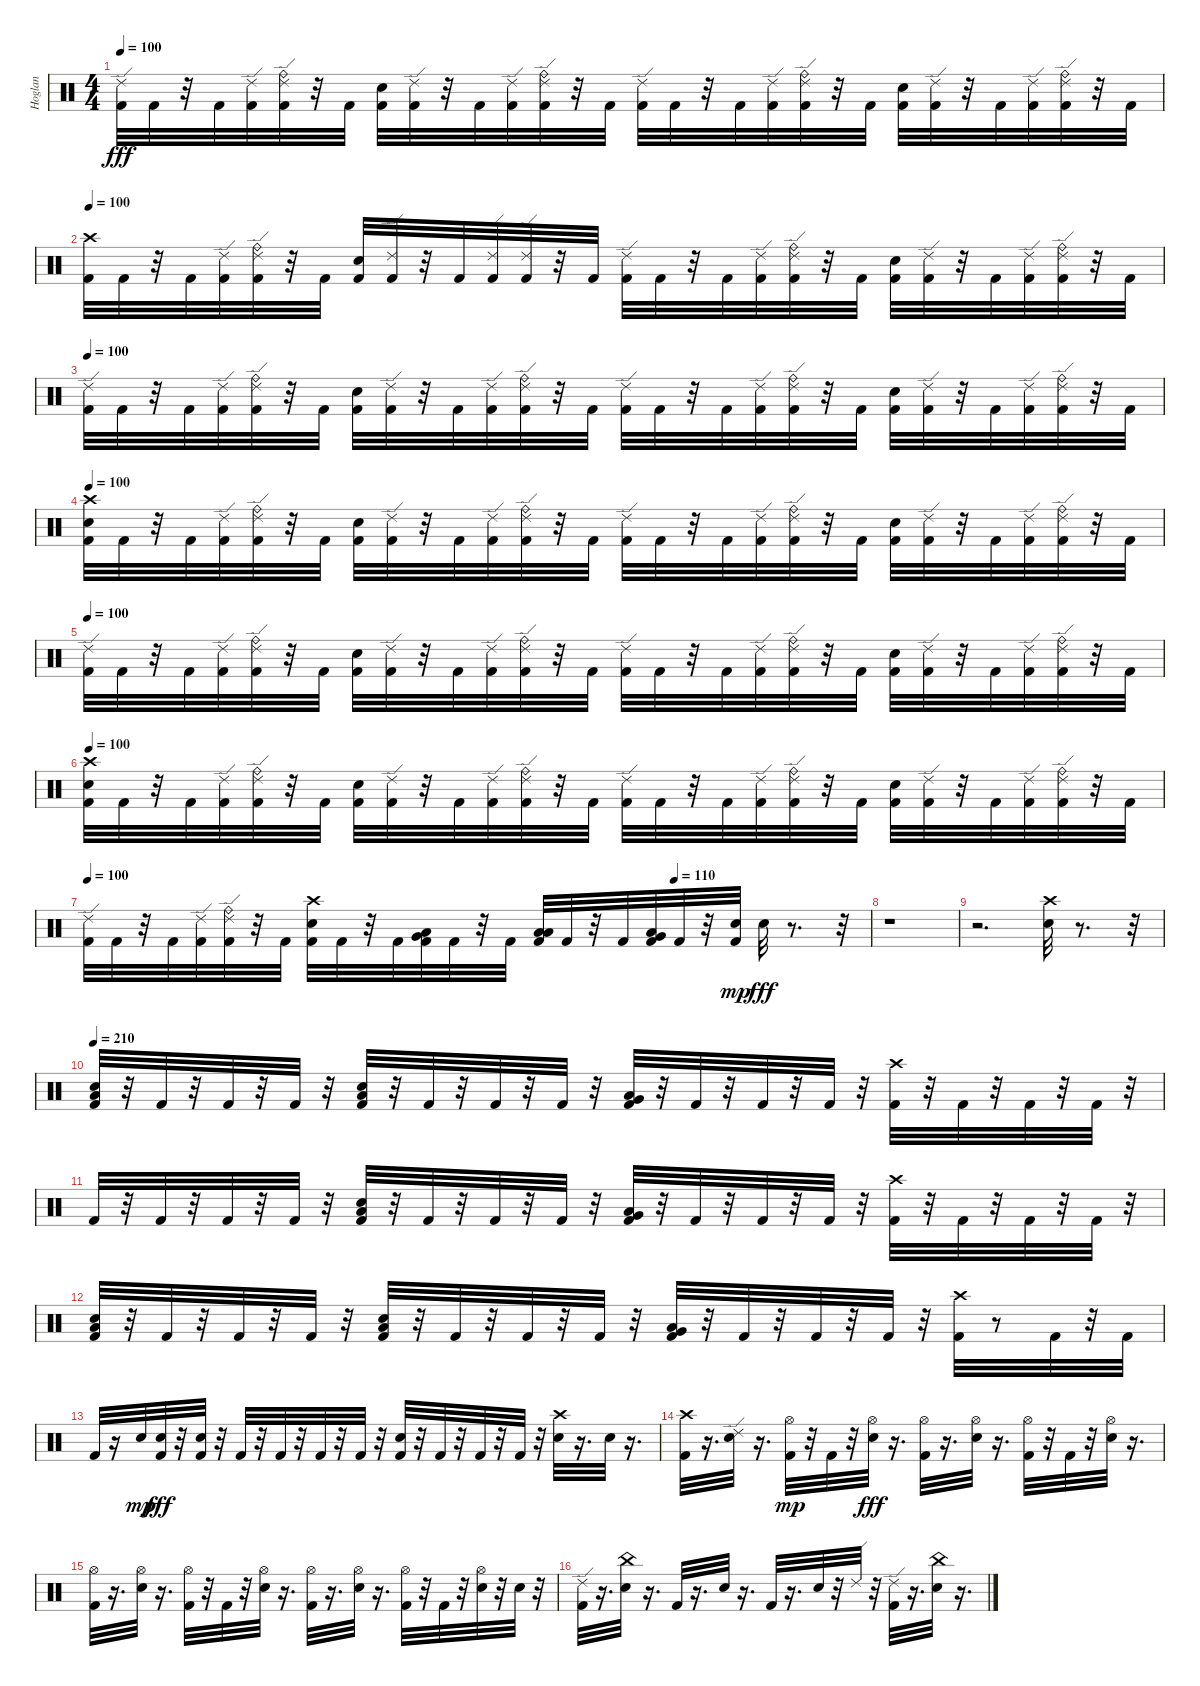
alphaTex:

\track ("Hoglan" "Hoglan") {instrument percussion}
\staff {score}
\articulation defaults
\ts (4 4)
\tempo 100
\clef neutral
\ks c
("Ride (edge) 2" "Kick (hit) 2").32{dy fff} "Kick (hit) 2".32 r.32 "Kick (hit) 2".32 ("Ride (edge) 2" "Kick (hit) 2").32 ("Ride (bell)" "Ride (edge) 2" "Kick (hit) 2").32 r.32 "Kick (hit) 2".32 ("Electric Snare (hit)" "Kick (hit) 2").32 ("Ride (edge) 2" "Kick (hit) 2").32 r.32 "Kick (hit) 2".32 ("Ride (edge) 2" "Kick (hit) 2").32 ("Ride (edge) 2" "Ride (bell)" "Kick (hit) 2").32 r.32 "Kick (hit) 2".32 ("Ride (edge) 2" "Kick (hit) 2").32 "Kick (hit) 2".32 r.32 "Kick (hit) 2".32 ("Ride (edge) 2" "Kick (hit) 2").32 ("Ride (bell)" "Ride (edge) 2" "Kick (hit) 2").32 r.32 "Kick (hit) 2".32 ("Electric Snare (hit)" "Kick (hit) 2").32 ("Ride (edge) 2" "Kick (hit) 2").32 r.32 "Kick (hit) 2".32 ("Ride (edge) 2" "Kick (hit) 2").32 ("Ride (edge) 2" "Ride (bell)" "Kick (hit) 2").32 r.32 "Kick (hit) 2".32 |
\tempo 100
("Crash high (hit)" "Kick (hit) 2").32 "Kick (hit) 2".32 r.32 "Kick (hit) 2".32 ("Ride (edge) 2" "Kick (hit) 2").32 ("Ride (bell)" "Ride (edge) 2" "Kick (hit) 2").32 r.32 "Kick (hit) 2".32 ("Electric Snare (hit)" "Kick (hit) 2").32 ("Ride (edge) 2" "Kick (hit) 2").32 r.32 "Kick (hit) 2".32 ("Ride (edge) 2" "Kick (hit) 2").32 ("Ride (edge) 2" "Kick (hit) 2").32 r.32 "Kick (hit) 2".32 ("Ride (edge) 2" "Kick (hit) 2").32 "Kick (hit) 2".32 r.32 "Kick (hit) 2".32 ("Ride (edge) 2" "Kick (hit) 2").32 ("Ride (bell)" "Ride (edge) 2" "Kick (hit) 2").32 r.32 "Kick (hit) 2".32 ("Electric Snare (hit)" "Kick (hit) 2").32 ("Ride (edge) 2" "Kick (hit) 2").32 r.32 "Kick (hit) 2".32 ("Ride (edge) 2" "Kick (hit) 2").32 ("Ride (edge) 2" "Ride (bell)" "Kick (hit) 2").32 r.32 "Kick (hit) 2".32 |
\tempo 100
("Ride (edge) 2" "Kick (hit) 2").32 "Kick (hit) 2".32 r.32 "Kick (hit) 2".32 ("Ride (edge) 2" "Kick (hit) 2").32 ("Ride (bell)" "Ride (edge) 2" "Kick (hit) 2").32 r.32 "Kick (hit) 2".32 ("Electric Snare (hit)" "Kick (hit) 2").32 ("Ride (edge) 2" "Kick (hit) 2").32 r.32 "Kick (hit) 2".32 ("Ride (edge) 2" "Kick (hit) 2").32 ("Ride (edge) 2" "Ride (bell)" "Kick (hit) 2").32 r.32 "Kick (hit) 2".32 ("Ride (edge) 2" "Kick (hit) 2").32 "Kick (hit) 2".32 r.32 "Kick (hit) 2".32 ("Ride (edge) 2" "Kick (hit) 2").32 ("Ride (bell)" "Ride (edge) 2" "Kick (hit) 2").32 r.32 "Kick (hit) 2".32 ("Electric Snare (hit)" "Kick (hit) 2").32 ("Ride (edge) 2" "Kick (hit) 2").32 r.32 "Kick (hit) 2".32 ("Ride (edge) 2" "Kick (hit) 2").32 ("Ride (edge) 2" "Ride (bell)" "Kick (hit) 2").32 r.32 "Kick (hit) 2".32 |
\tempo 100
("Crash high (hit)" "Electric Snare (hit)" "Kick (hit) 2").32 "Kick (hit) 2".32 r.32 "Kick (hit) 2".32 ("Ride (edge) 2" "Kick (hit) 2").32 ("Ride (bell)" "Ride (edge) 2" "Kick (hit) 2").32 r.32 "Kick (hit) 2".32 ("Electric Snare (hit)" "Kick (hit) 2").32 ("Ride (edge) 2" "Kick (hit) 2").32 r.32 "Kick (hit) 2".32 ("Ride (edge) 2" "Kick (hit) 2").32 ("Ride (edge) 2" "Ride (bell)" "Kick (hit) 2").32 r.32 "Kick (hit) 2".32 ("Ride (edge) 2" "Kick (hit) 2").32 "Kick (hit) 2".32 r.32 "Kick (hit) 2".32 ("Ride (edge) 2" "Kick (hit) 2").32 ("Ride (bell)" "Ride (edge) 2" "Kick (hit) 2").32 r.32 "Kick (hit) 2".32 ("Electric Snare (hit)" "Kick (hit) 2").32 ("Ride (edge) 2" "Kick (hit) 2").32 r.32 "Kick (hit) 2".32 ("Ride (edge) 2" "Kick (hit) 2").32 ("Ride (edge) 2" "Ride (bell)" "Kick (hit) 2").32 r.32 "Kick (hit) 2".32 |
\tempo 100
("Ride (edge) 2" "Kick (hit) 2").32 "Kick (hit) 2".32 r.32 "Kick (hit) 2".32 ("Ride (edge) 2" "Kick (hit) 2").32 ("Ride (bell)" "Ride (edge) 2" "Kick (hit) 2").32 r.32 "Kick (hit) 2".32 ("Electric Snare (hit)" "Kick (hit) 2").32 ("Ride (edge) 2" "Kick (hit) 2").32 r.32 "Kick (hit) 2".32 ("Ride (edge) 2" "Kick (hit) 2").32 ("Ride (edge) 2" "Ride (bell)" "Kick (hit) 2").32 r.32 "Kick (hit) 2".32 ("Ride (edge) 2" "Kick (hit) 2").32 "Kick (hit) 2".32 r.32 "Kick (hit) 2".32 ("Ride (edge) 2" "Kick (hit) 2").32 ("Ride (bell)" "Ride (edge) 2" "Kick (hit) 2").32 r.32 "Kick (hit) 2".32 ("Electric Snare (hit)" "Kick (hit) 2").32 ("Ride (edge) 2" "Kick (hit) 2").32 r.32 "Kick (hit) 2".32 ("Ride (edge) 2" "Kick (hit) 2").32 ("Ride (edge) 2" "Ride (bell)" "Kick (hit) 2").32 r.32 "Kick (hit) 2".32 |
\tempo 100
("Crash high (hit)" "Electric Snare (hit)" "Kick (hit) 2").32 "Kick (hit) 2".32 r.32 "Kick (hit) 2".32 ("Ride (edge) 2" "Kick (hit) 2").32 ("Ride (bell)" "Ride (edge) 2" "Kick (hit) 2").32 r.32 "Kick (hit) 2".32 ("Electric Snare (hit)" "Kick (hit) 2").32 ("Ride (edge) 2" "Kick (hit) 2").32 r.32 "Kick (hit) 2".32 ("Ride (edge) 2" "Kick (hit) 2").32 ("Ride (edge) 2" "Ride (bell)" "Kick (hit) 2").32 r.32 "Kick (hit) 2".32 ("Ride (edge) 2" "Kick (hit) 2").32 "Kick (hit) 2".32 r.32 "Kick (hit) 2".32 ("Ride (edge) 2" "Kick (hit) 2").32 ("Ride (bell)" "Ride (edge) 2" "Kick (hit) 2").32 r.32 "Kick (hit) 2".32 ("Electric Snare (hit)" "Kick (hit) 2").32 ("Ride (edge) 2" "Kick (hit) 2").32 r.32 "Kick (hit) 2".32 ("Ride (edge) 2" "Kick (hit) 2").32 ("Ride (edge) 2" "Ride (bell)" "Kick (hit) 2").32 r.32 "Kick (hit) 2".32 |
\tempo 100
\tempo (110 0.75)
("Ride (edge) 2" "Kick (hit) 2").32 "Kick (hit) 2".32 r.32 "Kick (hit) 2".32 ("Ride (edge) 2" "Kick (hit) 2").32 ("Ride (bell)" "Ride (edge) 2" "Kick (hit) 2").32 r.32 "Kick (hit) 2".32 ("Crash high (hit)" "Electric Snare (hit)" "Kick (hit) 2").32 "Kick (hit) 2".32 r.32 "Kick (hit) 2".32 ("Low Tom (hit)" "Very Low Tom (hit)" "Kick (hit) 2").32 "Kick (hit) 2".32 r.32 "Kick (hit) 2".32 ("Low Tom (hit)" "Low Floor Tom (hit)" "Kick (hit) 2").32 "Kick (hit) 2".32 r.32 "Kick (hit) 2".32 ("Very Low Tom (hit)" "Low Floor Tom (hit)" "Kick (hit) 2").32 "Kick (hit) 2".32 r.32 ("Kick (hit) 2" "Electric Snare (hit)").32{dy mp} "Electric Snare (hit)".32{dy fff} r.8{d} r.32 |
r.1 |
r.2{d} ("Crash high (hit)" "Electric Snare (hit)").32 r.8{d} r.32 |
\tempo 210
("Electric Snare (hit)" "Low Floor Tom (hit)" "Kick (hit) 2").32 r.32 "Kick (hit) 2".32 r.32 "Kick (hit) 2".32 r.32 "Kick (hit) 2".32 r.32 ("Electric Snare (hit)" "Low Floor Tom (hit)" "Kick (hit) 2").32 r.32 "Kick (hit) 2".32 r.32 "Kick (hit) 2".32 r.32 "Kick (hit) 2".32 r.32 ("Very Low Tom (hit)" "Low Floor Tom (hit)" "Kick (hit) 2").32 r.32 "Kick (hit) 2".32 r.32 "Kick (hit) 2".32 r.32 "Kick (hit) 2".32 r.32 ("Crash high (hit)" "Kick (hit) 2").32 r.32 "Kick (hit) 2".32 r.32 "Kick (hit) 2".32 r.32 "Kick (hit) 2".32 r.32 |
"Kick (hit) 2".32 r.32 "Kick (hit) 2".32 r.32 "Kick (hit) 2".32 r.32 "Kick (hit) 2".32 r.32 ("Electric Snare (hit)" "Low Floor Tom (hit)" "Kick (hit) 2").32 r.32 "Kick (hit) 2".32 r.32 "Kick (hit) 2".32 r.32 "Kick (hit) 2".32 r.32 ("Very Low Tom (hit)" "Low Floor Tom (hit)" "Kick (hit) 2").32 r.32 "Kick (hit) 2".32 r.32 "Kick (hit) 2".32 r.32 "Kick (hit) 2".32 r.32 ("Crash high (hit)" "Kick (hit) 2").32 r.32 "Kick (hit) 2".32 r.32 "Kick (hit) 2".32 r.32 "Kick (hit) 2".32 r.32 |
("Electric Snare (hit)" "Low Floor Tom (hit)" "Kick (hit) 2").32 r.32 "Kick (hit) 2".32 r.32 "Kick (hit) 2".32 r.32 "Kick (hit) 2".32 r.32 ("Electric Snare (hit)" "Low Floor Tom (hit)" "Kick (hit) 2").32 r.32 "Kick (hit) 2".32 r.32 "Kick (hit) 2".32 r.32 "Kick (hit) 2".32 r.32 ("Very Low Tom (hit)" "Low Floor Tom (hit)" "Kick (hit) 2").32 r.32 "Kick (hit) 2".32 r.32 "Kick (hit) 2".32 r.32 "Kick (hit) 2".32 r.32 ("Crash high (hit)" "Kick (hit) 2").32 r.8 "Kick (hit) 2".32 r.32 "Kick (hit) 2".32 |
"Kick (hit) 2".32 r.16 "Electric Snare (hit)".32{dy mp} ("Electric Snare (hit)" "Kick (hit) 2").32{dy fff} r.32 ("Electric Snare (hit)" "Kick (hit) 2").32 r.32 "Kick (hit) 2".32 r.32 "Kick (hit) 2".32 r.32 "Kick (hit) 2".32 r.32 "Kick (hit) 2".32 r.32 ("Electric Snare (hit)" "Kick (hit) 2").32 r.32 "Kick (hit) 2".32 r.32 "Kick (hit) 2".32 r.32 "Kick (hit) 2".32 r.32 ("Crash high (hit)" "Electric Snare (hit)").32 r.16{d} "Electric Snare (hit)".32 r.16{d} |
("Crash high (hit)" "Kick (hit) 2").32 r.16{d} ("Ride (edge) 2" "Electric Snare (hit)").32 r.16{d} ("Hi-Hat (open)" "Kick (hit) 2").32{dy mp} r.32 "Kick (hit) 2".32 r.32 ("Hi-Hat (open)" "Electric Snare (hit)").32{dy fff} r.16{d} ("Hi-Hat (open)" "Kick (hit) 2").32 r.16{d} ("Hi-Hat (open)" "Electric Snare (hit)").32 r.16{d} ("Hi-Hat (open)" "Kick (hit) 2").32 r.32 "Kick (hit) 2".32 r.32 ("Hi-Hat (open)" "Electric Snare (hit)").32 r.16{d} |
("Hi-Hat (open)" "Kick (hit) 2").32 r.16{d} ("Hi-Hat (open)" "Electric Snare (hit)").32 r.16{d} ("Hi-Hat (open)" "Kick (hit) 2").32 r.32 "Kick (hit) 2".32 r.32 ("Hi-Hat (open)" "Electric Snare (hit)").32 r.16{d} ("Hi-Hat (open)" "Kick (hit) 2").32 r.16{d} ("Hi-Hat (open)" "Electric Snare (hit)").32 r.16{d} ("Hi-Hat (open)" "Kick (hit) 2").32 r.32 "Kick (hit) 2".32 r.32 ("Hi-Hat (open)" "Electric Snare (hit)").32 r.32 "Electric Snare (hit)".32 r.32 |
("Ride (edge) 2" "Kick (hit) 2").32 r.16{d} ("China (hit)" "Electric Snare (hit)").32 r.16{d} "Kick (hit) 2".32 r.16{d} "Electric Snare (hit)".32 r.16{d} "Kick (hit) 2".32 r.16{d} "Electric Snare (hit)".32 r.32 "Ride (edge) 2".32 r.32 ("Ride (edge) 2" "Kick (hit) 2").32 r.16{d} ("China (hit)" "Electric Snare (hit)").32 r.16{d}
